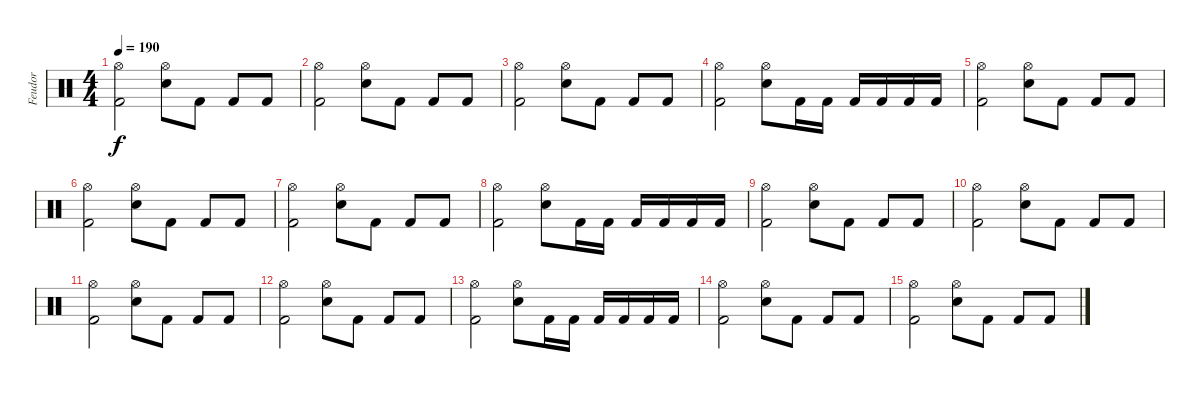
\track ("Feudor" "Feudor") {instrument percussion}
\staff {score}
\articulation defaults
\ts (4 4)
\tempo 190
\clef neutral
\ks c
("Hi-Hat (open)" "Kick (hit) 2").2{dy f} ("Hi-Hat (open)" "Electric Snare (hit)").8 "Kick (hit) 2".8 "Kick (hit) 2".8 "Kick (hit) 2".8 |
("Hi-Hat (open)" "Kick (hit) 2").2 ("Hi-Hat (open)" "Snare (hit) 2").8 "Kick (hit) 2".8 "Kick (hit) 2".8 "Kick (hit) 2".8 |
("Hi-Hat (open)" "Kick (hit) 2").2 ("Hi-Hat (open)" "Electric Snare (hit)").8 "Kick (hit) 2".8 "Kick (hit) 2".8 "Kick (hit) 2".8 |
("Hi-Hat (open)" "Kick (hit) 2").2 ("Hi-Hat (open)" "Snare (hit) 2").8 "Kick (hit) 2".16 "Kick (hit) 2".16 "Kick (hit) 2".16 "Kick (hit) 2".16 "Kick (hit) 2".16 "Kick (hit) 2".16 |
("Hi-Hat (open)" "Kick (hit) 2").2 ("Hi-Hat (open)" "Electric Snare (hit)").8 "Kick (hit) 2".8 "Kick (hit) 2".8 "Kick (hit) 2".8 |
("Hi-Hat (open)" "Kick (hit) 2").2 ("Hi-Hat (open)" "Snare (hit) 2").8 "Kick (hit) 2".8 "Kick (hit) 2".8 "Kick (hit) 2".8 |
("Hi-Hat (open)" "Kick (hit) 2").2 ("Hi-Hat (open)" "Electric Snare (hit)").8 "Kick (hit) 2".8 "Kick (hit) 2".8 "Kick (hit) 2".8 |
("Hi-Hat (open)" "Kick (hit) 2").2 ("Hi-Hat (open)" "Snare (hit) 2").8 "Kick (hit) 2".16 "Kick (hit) 2".16 "Kick (hit) 2".16 "Kick (hit) 2".16 "Kick (hit) 2".16 "Kick (hit) 2".16 |
("Hi-Hat (open)" "Kick (hit) 2").2 ("Hi-Hat (open)" "Electric Snare (hit)").8 "Kick (hit) 2".8 "Kick (hit) 2".8 "Kick (hit) 2".8 |
("Hi-Hat (open)" "Kick (hit) 2").2 ("Hi-Hat (open)" "Electric Snare (hit)").8 "Kick (hit) 2".8 "Kick (hit) 2".8 "Kick (hit) 2".8 |
("Hi-Hat (open)" "Kick (hit) 2").2 ("Hi-Hat (open)" "Snare (hit) 2").8 "Kick (hit) 2".8 "Kick (hit) 2".8 "Kick (hit) 2".8 |
("Hi-Hat (open)" "Kick (hit) 2").2 ("Hi-Hat (open)" "Electric Snare (hit)").8 "Kick (hit) 2".8 "Kick (hit) 2".8 "Kick (hit) 2".8 |
("Hi-Hat (open)" "Kick (hit) 2").2 ("Hi-Hat (open)" "Snare (hit) 2").8 "Kick (hit) 2".16 "Kick (hit) 2".16 "Kick (hit) 2".16 "Kick (hit) 2".16 "Kick (hit) 2".16 "Kick (hit) 2".16 |
("Hi-Hat (open)" "Kick (hit) 2").2 ("Hi-Hat (open)" "Electric Snare (hit)").8 "Kick (hit) 2".8 "Kick (hit) 2".8 "Kick (hit) 2".8 |
("Hi-Hat (open)" "Kick (hit) 2").2 ("Hi-Hat (open)" "Electric Snare (hit)").8 "Kick (hit) 2".8 "Kick (hit) 2".8 "Kick (hit) 2".8
